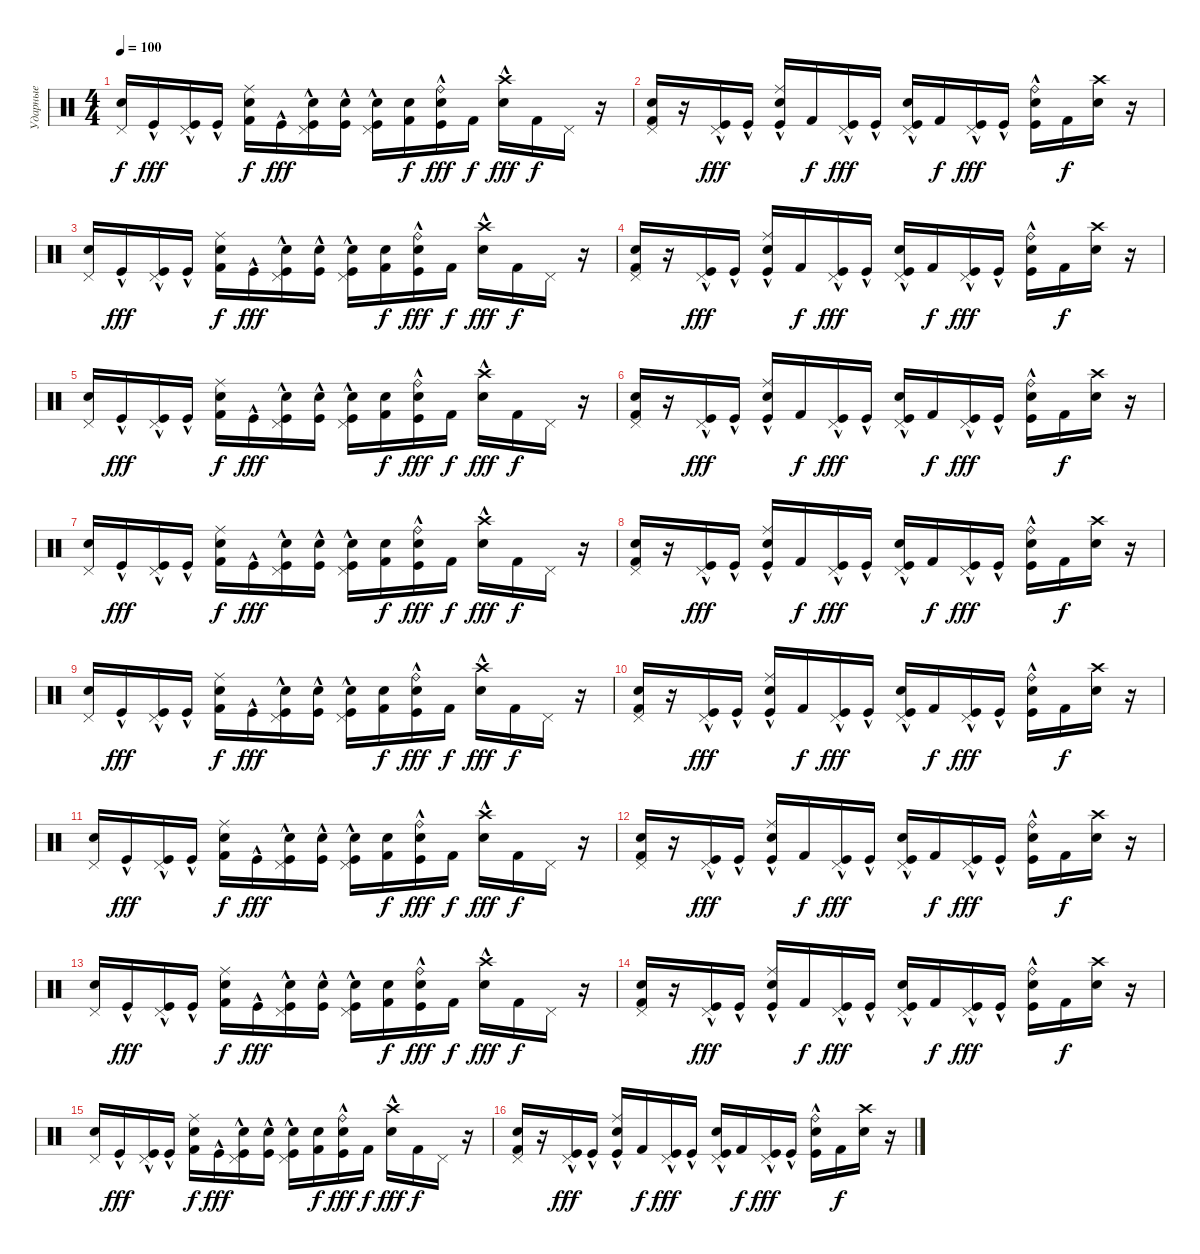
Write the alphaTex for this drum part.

\track ("Ударные" "Ударные") {instrument percussion}
\staff {score}
\articulation defaults
\ts (4 4)
\tempo 100
\clef neutral
\ks c
("Snare (hit) 2" "Pedal Hi-Hat (hit)").16{dy f} "Kick (hit)"{hac}.16{dy fff} ("Kick (hit)"{hac} "Pedal Hi-Hat (hit)").16 "Kick (hit)"{hac}.16 ("Electric Snare (hit)" "Kick (hit) 2" "Ride (middle)").16{dy f} "Kick (hit)"{hac}.16{dy fff} ("Snare (hit) 2" "Kick (hit)"{hac} "Pedal Hi-Hat (hit)").16 ("Snare (hit) 2" "Kick (hit)"{hac}).16 ("Snare (hit) 2" "Kick (hit)"{hac} "Pedal Hi-Hat (hit)").16 ("Snare (hit) 2" "Kick (hit) 2").16{dy f} ("Snare (hit) 2" "Kick (hit)"{hac} "Ride (bell)").16{dy fff} "Kick (hit) 2".16{dy f} ("Electric Snare (hit)"{hac} "Crash high (hit)").16{dy fff} "Kick (hit) 2".16{dy f} "Pedal Hi-Hat (hit)".16 r.16 |
("Snare (hit) 2" "Kick (hit) 2" "Pedal Hi-Hat (hit)").16 r.16 ("Kick (hit)"{hac} "Pedal Hi-Hat (hit)").16{dy fff} "Kick (hit)"{hac}.16 ("Electric Snare (hit)" "Kick (hit)"{hac} "Ride (middle)").16 "Kick (hit) 2".16{dy f} ("Kick (hit)"{hac} "Pedal Hi-Hat (hit)").16{dy fff} "Kick (hit)"{hac}.16 ("Snare (hit) 2" "Kick (hit)"{hac} "Pedal Hi-Hat (hit)").16 "Kick (hit) 2".16{dy f} ("Kick (hit)"{hac} "Pedal Hi-Hat (hit)").16{dy fff} "Kick (hit)"{hac}.16 ("Electric Snare (hit)" "Kick (hit)"{hac} "Ride (bell)").16 "Kick (hit) 2".16{dy f} ("Snare (hit) 2" "Crash high (hit)").16 r.16 |
("Snare (hit) 2" "Pedal Hi-Hat (hit)").16 "Kick (hit)"{hac}.16{dy fff} ("Kick (hit)"{hac} "Pedal Hi-Hat (hit)").16 "Kick (hit)"{hac}.16 ("Electric Snare (hit)" "Kick (hit) 2" "Ride (middle)").16{dy f} "Kick (hit)"{hac}.16{dy fff} ("Snare (hit) 2" "Kick (hit)"{hac} "Pedal Hi-Hat (hit)").16 ("Snare (hit) 2" "Kick (hit)"{hac}).16 ("Snare (hit) 2" "Kick (hit)"{hac} "Pedal Hi-Hat (hit)").16 ("Snare (hit) 2" "Kick (hit) 2").16{dy f} ("Snare (hit) 2" "Kick (hit)"{hac} "Ride (bell)").16{dy fff} "Kick (hit) 2".16{dy f} ("Electric Snare (hit)"{hac} "Crash high (hit)").16{dy fff} "Kick (hit) 2".16{dy f} "Pedal Hi-Hat (hit)".16 r.16 |
("Snare (hit) 2" "Kick (hit) 2" "Pedal Hi-Hat (hit)").16 r.16 ("Kick (hit)"{hac} "Pedal Hi-Hat (hit)").16{dy fff} "Kick (hit)"{hac}.16 ("Electric Snare (hit)" "Kick (hit)"{hac} "Ride (middle)").16 "Kick (hit) 2".16{dy f} ("Kick (hit)"{hac} "Pedal Hi-Hat (hit)").16{dy fff} "Kick (hit)"{hac}.16 ("Snare (hit) 2" "Kick (hit)"{hac} "Pedal Hi-Hat (hit)").16 "Kick (hit) 2".16{dy f} ("Kick (hit)"{hac} "Pedal Hi-Hat (hit)").16{dy fff} "Kick (hit)"{hac}.16 ("Electric Snare (hit)" "Kick (hit)"{hac} "Ride (bell)").16 "Kick (hit) 2".16{dy f} ("Snare (hit) 2" "Crash high (hit)").16 r.16 |
("Snare (hit) 2" "Pedal Hi-Hat (hit)").16 "Kick (hit)"{hac}.16{dy fff} ("Kick (hit)"{hac} "Pedal Hi-Hat (hit)").16 "Kick (hit)"{hac}.16 ("Electric Snare (hit)" "Kick (hit) 2" "Ride (middle)").16{dy f} "Kick (hit)"{hac}.16{dy fff} ("Snare (hit) 2" "Kick (hit)"{hac} "Pedal Hi-Hat (hit)").16 ("Snare (hit) 2" "Kick (hit)"{hac}).16 ("Snare (hit) 2" "Kick (hit)"{hac} "Pedal Hi-Hat (hit)").16 ("Snare (hit) 2" "Kick (hit) 2").16{dy f} ("Snare (hit) 2" "Kick (hit)"{hac} "Ride (bell)").16{dy fff} "Kick (hit) 2".16{dy f} ("Electric Snare (hit)"{hac} "Crash high (hit)").16{dy fff} "Kick (hit) 2".16{dy f} "Pedal Hi-Hat (hit)".16 r.16 |
("Snare (hit) 2" "Kick (hit) 2" "Pedal Hi-Hat (hit)").16 r.16 ("Kick (hit)"{hac} "Pedal Hi-Hat (hit)").16{dy fff} "Kick (hit)"{hac}.16 ("Electric Snare (hit)" "Kick (hit)"{hac} "Ride (middle)").16 "Kick (hit) 2".16{dy f} ("Kick (hit)"{hac} "Pedal Hi-Hat (hit)").16{dy fff} "Kick (hit)"{hac}.16 ("Snare (hit) 2" "Kick (hit)"{hac} "Pedal Hi-Hat (hit)").16 "Kick (hit) 2".16{dy f} ("Kick (hit)"{hac} "Pedal Hi-Hat (hit)").16{dy fff} "Kick (hit)"{hac}.16 ("Electric Snare (hit)" "Kick (hit)"{hac} "Ride (bell)").16 "Kick (hit) 2".16{dy f} ("Snare (hit) 2" "Crash high (hit)").16 r.16 |
("Snare (hit) 2" "Pedal Hi-Hat (hit)").16 "Kick (hit)"{hac}.16{dy fff} ("Kick (hit)"{hac} "Pedal Hi-Hat (hit)").16 "Kick (hit)"{hac}.16 ("Electric Snare (hit)" "Kick (hit) 2" "Ride (middle)").16{dy f} "Kick (hit)"{hac}.16{dy fff} ("Snare (hit) 2" "Kick (hit)"{hac} "Pedal Hi-Hat (hit)").16 ("Snare (hit) 2" "Kick (hit)"{hac}).16 ("Snare (hit) 2" "Kick (hit)"{hac} "Pedal Hi-Hat (hit)").16 ("Snare (hit) 2" "Kick (hit) 2").16{dy f} ("Snare (hit) 2" "Kick (hit)"{hac} "Ride (bell)").16{dy fff} "Kick (hit) 2".16{dy f} ("Electric Snare (hit)"{hac} "Crash high (hit)").16{dy fff} "Kick (hit) 2".16{dy f} "Pedal Hi-Hat (hit)".16 r.16 |
("Snare (hit) 2" "Kick (hit) 2" "Pedal Hi-Hat (hit)").16 r.16 ("Kick (hit)"{hac} "Pedal Hi-Hat (hit)").16{dy fff} "Kick (hit)"{hac}.16 ("Electric Snare (hit)" "Kick (hit)"{hac} "Ride (middle)").16 "Kick (hit) 2".16{dy f} ("Kick (hit)"{hac} "Pedal Hi-Hat (hit)").16{dy fff} "Kick (hit)"{hac}.16 ("Snare (hit) 2" "Kick (hit)"{hac} "Pedal Hi-Hat (hit)").16 "Kick (hit) 2".16{dy f} ("Kick (hit)"{hac} "Pedal Hi-Hat (hit)").16{dy fff} "Kick (hit)"{hac}.16 ("Electric Snare (hit)" "Kick (hit)"{hac} "Ride (bell)").16 "Kick (hit) 2".16{dy f} ("Snare (hit) 2" "Crash high (hit)").16 r.16 |
("Snare (hit) 2" "Pedal Hi-Hat (hit)").16 "Kick (hit)"{hac}.16{dy fff} ("Kick (hit)"{hac} "Pedal Hi-Hat (hit)").16 "Kick (hit)"{hac}.16 ("Electric Snare (hit)" "Kick (hit) 2" "Ride (middle)").16{dy f} "Kick (hit)"{hac}.16{dy fff} ("Snare (hit) 2" "Kick (hit)"{hac} "Pedal Hi-Hat (hit)").16 ("Snare (hit) 2" "Kick (hit)"{hac}).16 ("Snare (hit) 2" "Kick (hit)"{hac} "Pedal Hi-Hat (hit)").16 ("Snare (hit) 2" "Kick (hit) 2").16{dy f} ("Snare (hit) 2" "Kick (hit)"{hac} "Ride (bell)").16{dy fff} "Kick (hit) 2".16{dy f} ("Electric Snare (hit)"{hac} "Crash high (hit)").16{dy fff} "Kick (hit) 2".16{dy f} "Pedal Hi-Hat (hit)".16 r.16 |
("Snare (hit) 2" "Kick (hit) 2" "Pedal Hi-Hat (hit)").16 r.16 ("Kick (hit)"{hac} "Pedal Hi-Hat (hit)").16{dy fff} "Kick (hit)"{hac}.16 ("Electric Snare (hit)" "Kick (hit)"{hac} "Ride (middle)").16 "Kick (hit) 2".16{dy f} ("Kick (hit)"{hac} "Pedal Hi-Hat (hit)").16{dy fff} "Kick (hit)"{hac}.16 ("Snare (hit) 2" "Kick (hit)"{hac} "Pedal Hi-Hat (hit)").16 "Kick (hit) 2".16{dy f} ("Kick (hit)"{hac} "Pedal Hi-Hat (hit)").16{dy fff} "Kick (hit)"{hac}.16 ("Electric Snare (hit)" "Kick (hit)"{hac} "Ride (bell)").16 "Kick (hit) 2".16{dy f} ("Snare (hit) 2" "Crash high (hit)").16 r.16 |
("Snare (hit) 2" "Pedal Hi-Hat (hit)").16 "Kick (hit)"{hac}.16{dy fff} ("Kick (hit)"{hac} "Pedal Hi-Hat (hit)").16 "Kick (hit)"{hac}.16 ("Electric Snare (hit)" "Kick (hit) 2" "Ride (middle)").16{dy f} "Kick (hit)"{hac}.16{dy fff} ("Snare (hit) 2" "Kick (hit)"{hac} "Pedal Hi-Hat (hit)").16 ("Snare (hit) 2" "Kick (hit)"{hac}).16 ("Snare (hit) 2" "Kick (hit)"{hac} "Pedal Hi-Hat (hit)").16 ("Snare (hit) 2" "Kick (hit) 2").16{dy f} ("Snare (hit) 2" "Kick (hit)"{hac} "Ride (bell)").16{dy fff} "Kick (hit) 2".16{dy f} ("Electric Snare (hit)"{hac} "Crash high (hit)").16{dy fff} "Kick (hit) 2".16{dy f} "Pedal Hi-Hat (hit)".16 r.16 |
("Snare (hit) 2" "Kick (hit) 2" "Pedal Hi-Hat (hit)").16 r.16 ("Kick (hit)"{hac} "Pedal Hi-Hat (hit)").16{dy fff} "Kick (hit)"{hac}.16 ("Electric Snare (hit)" "Kick (hit)"{hac} "Ride (middle)").16 "Kick (hit) 2".16{dy f} ("Kick (hit)"{hac} "Pedal Hi-Hat (hit)").16{dy fff} "Kick (hit)"{hac}.16 ("Snare (hit) 2" "Kick (hit)"{hac} "Pedal Hi-Hat (hit)").16 "Kick (hit) 2".16{dy f} ("Kick (hit)"{hac} "Pedal Hi-Hat (hit)").16{dy fff} "Kick (hit)"{hac}.16 ("Electric Snare (hit)" "Kick (hit)"{hac} "Ride (bell)").16 "Kick (hit) 2".16{dy f} ("Snare (hit) 2" "Crash high (hit)").16 r.16 |
("Snare (hit) 2" "Pedal Hi-Hat (hit)").16 "Kick (hit)"{hac}.16{dy fff} ("Kick (hit)"{hac} "Pedal Hi-Hat (hit)").16 "Kick (hit)"{hac}.16 ("Electric Snare (hit)" "Kick (hit) 2" "Ride (middle)").16{dy f} "Kick (hit)"{hac}.16{dy fff} ("Snare (hit) 2" "Kick (hit)"{hac} "Pedal Hi-Hat (hit)").16 ("Snare (hit) 2" "Kick (hit)"{hac}).16 ("Snare (hit) 2" "Kick (hit)"{hac} "Pedal Hi-Hat (hit)").16 ("Snare (hit) 2" "Kick (hit) 2").16{dy f} ("Snare (hit) 2" "Kick (hit)"{hac} "Ride (bell)").16{dy fff} "Kick (hit) 2".16{dy f} ("Electric Snare (hit)"{hac} "Crash high (hit)").16{dy fff} "Kick (hit) 2".16{dy f} "Pedal Hi-Hat (hit)".16 r.16 |
("Snare (hit) 2" "Kick (hit) 2" "Pedal Hi-Hat (hit)").16 r.16 ("Kick (hit)"{hac} "Pedal Hi-Hat (hit)").16{dy fff} "Kick (hit)"{hac}.16 ("Electric Snare (hit)" "Kick (hit)"{hac} "Ride (middle)").16 "Kick (hit) 2".16{dy f} ("Kick (hit)"{hac} "Pedal Hi-Hat (hit)").16{dy fff} "Kick (hit)"{hac}.16 ("Snare (hit) 2" "Kick (hit)"{hac} "Pedal Hi-Hat (hit)").16 "Kick (hit) 2".16{dy f} ("Kick (hit)"{hac} "Pedal Hi-Hat (hit)").16{dy fff} "Kick (hit)"{hac}.16 ("Electric Snare (hit)" "Kick (hit)"{hac} "Ride (bell)").16 "Kick (hit) 2".16{dy f} ("Snare (hit) 2" "Crash high (hit)").16 r.16 |
("Snare (hit) 2" "Pedal Hi-Hat (hit)").16 "Kick (hit)"{hac}.16{dy fff} ("Kick (hit)"{hac} "Pedal Hi-Hat (hit)").16 "Kick (hit)"{hac}.16 ("Electric Snare (hit)" "Kick (hit) 2" "Ride (middle)").16{dy f} "Kick (hit)"{hac}.16{dy fff} ("Snare (hit) 2" "Kick (hit)"{hac} "Pedal Hi-Hat (hit)").16 ("Snare (hit) 2" "Kick (hit)"{hac}).16 ("Snare (hit) 2" "Kick (hit)"{hac} "Pedal Hi-Hat (hit)").16 ("Snare (hit) 2" "Kick (hit) 2").16{dy f} ("Snare (hit) 2" "Kick (hit)"{hac} "Ride (bell)").16{dy fff} "Kick (hit) 2".16{dy f} ("Electric Snare (hit)"{hac} "Crash high (hit)").16{dy fff} "Kick (hit) 2".16{dy f} "Pedal Hi-Hat (hit)".16 r.16 |
("Snare (hit) 2" "Kick (hit) 2" "Pedal Hi-Hat (hit)").16 r.16 ("Kick (hit)"{hac} "Pedal Hi-Hat (hit)").16{dy fff} "Kick (hit)"{hac}.16 ("Electric Snare (hit)" "Kick (hit)"{hac} "Ride (middle)").16 "Kick (hit) 2".16{dy f} ("Kick (hit)"{hac} "Pedal Hi-Hat (hit)").16{dy fff} "Kick (hit)"{hac}.16 ("Snare (hit) 2" "Kick (hit)"{hac} "Pedal Hi-Hat (hit)").16 "Kick (hit) 2".16{dy f} ("Kick (hit)"{hac} "Pedal Hi-Hat (hit)").16{dy fff} "Kick (hit)"{hac}.16 ("Electric Snare (hit)" "Kick (hit)"{hac} "Ride (bell)").16 "Kick (hit) 2".16{dy f} ("Snare (hit) 2" "Crash high (hit)").16 r.16
